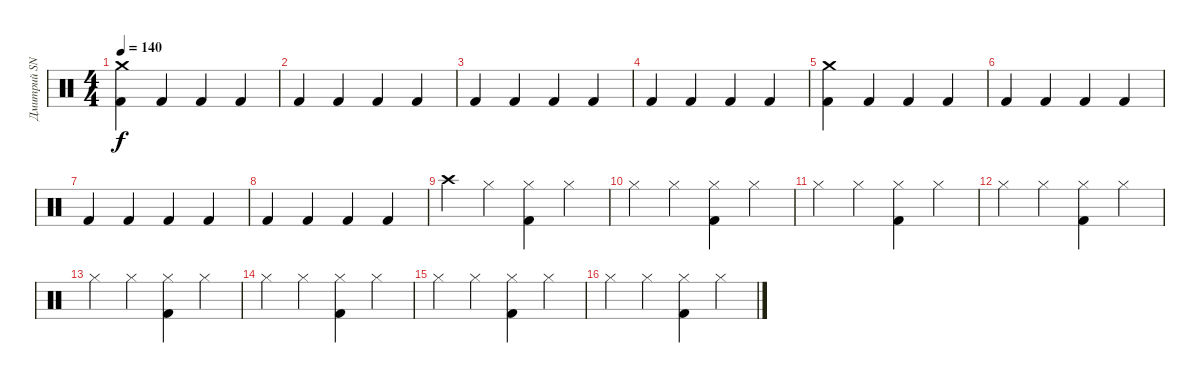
\track ("Дмитрий SNAKE Хакимов" "Дмитрий SN") {instrument percussion}
\staff {score}
\articulation defaults
\ts (4 4)
\tempo 140
\clef neutral
\ks c
("Crash medium (hit)" "Kick (hit) 2").4{dy f} "Kick (hit) 2".4 "Kick (hit) 2".4 "Kick (hit) 2".4 |
"Kick (hit) 2".4 "Kick (hit) 2".4 "Kick (hit) 2".4 "Kick (hit) 2".4 |
"Kick (hit) 2".4 "Kick (hit) 2".4 "Kick (hit) 2".4 "Kick (hit) 2".4 |
"Kick (hit) 2".4 "Kick (hit) 2".4 "Kick (hit) 2".4 "Kick (hit) 2".4 |
("Crash medium (hit)" "Kick (hit) 2").4 "Kick (hit) 2".4 "Kick (hit) 2".4 "Kick (hit) 2".4 |
"Kick (hit) 2".4 "Kick (hit) 2".4 "Kick (hit) 2".4 "Kick (hit) 2".4 |
"Kick (hit) 2".4 "Kick (hit) 2".4 "Kick (hit) 2".4 "Kick (hit) 2".4 |
"Kick (hit) 2".4 "Kick (hit) 2".4 "Kick (hit) 2".4 "Kick (hit) 2".4 |
"Crash high (hit)".4 "Hi-Hat (closed)".4 ("Hi-Hat (closed)" "Kick (hit) 2").4 "Hi-Hat (closed)".4 |
"Hi-Hat (closed)".4 "Hi-Hat (closed)".4 ("Hi-Hat (closed)" "Kick (hit) 2").4 "Hi-Hat (closed)".4 |
"Hi-Hat (closed)".4 "Hi-Hat (closed)".4 ("Hi-Hat (closed)" "Kick (hit) 2").4 "Hi-Hat (closed)".4 |
"Hi-Hat (closed)".4 "Hi-Hat (closed)".4 ("Hi-Hat (closed)" "Kick (hit) 2").4 "Hi-Hat (closed)".4 |
"Hi-Hat (closed)".4 "Hi-Hat (closed)".4 ("Hi-Hat (closed)" "Kick (hit) 2").4 "Hi-Hat (closed)".4 |
"Hi-Hat (closed)".4 "Hi-Hat (closed)".4 ("Hi-Hat (closed)" "Kick (hit) 2").4 "Hi-Hat (closed)".4 |
"Hi-Hat (closed)".4 "Hi-Hat (closed)".4 ("Hi-Hat (closed)" "Kick (hit) 2").4 "Hi-Hat (closed)".4 |
"Hi-Hat (closed)".4 "Hi-Hat (closed)".4 ("Hi-Hat (closed)" "Kick (hit) 2").4 "Hi-Hat (closed)".4
